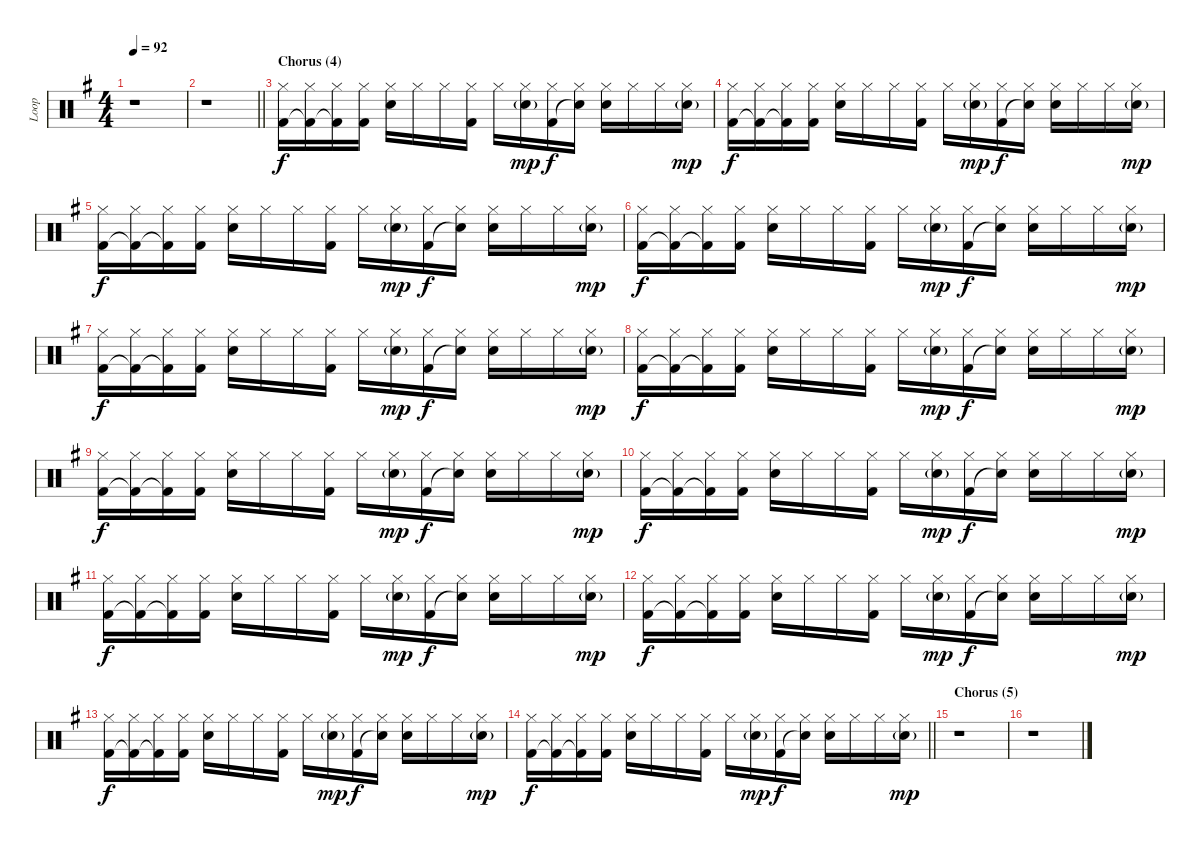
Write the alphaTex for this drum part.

\track ("Loop" "Loop") {instrument percussion}
\staff {score}
\articulation defaults
\ts (4 4)
\tempo 92
\clef neutral
\ks g
r.1{dy mp} |
\barLineRight lightlight
r.1 |
\section ("" "Chorus (4)")
("Hi-Hat (closed)" "Kick (hit) 2").16{dy f} ("Hi-Hat (closed)" "Kick (hit) 2"{t}).16 ("Hi-Hat (closed)" "Kick (hit) 2"{t}).16 ("Hi-Hat (closed)" "Kick (hit) 2").16 ("Hi-Hat (closed)" "Electric Snare (hit)").16 "Hi-Hat (closed)".16 "Hi-Hat (closed)".16 ("Hi-Hat (closed)" "Kick (hit) 2").16 "Hi-Hat (closed)".16 ("Hi-Hat (closed)" "Electric Snare (hit)"{g}).16{dy mp} ("Hi-Hat (closed)" "Kick (hit) 2").16{dy f} ("Hi-Hat (closed)" "Snare (hit)"{t}).16 ("Hi-Hat (closed)" "Electric Snare (hit)").16 "Hi-Hat (closed)".16 "Hi-Hat (closed)".16 ("Hi-Hat (closed)" "Electric Snare (hit)"{g}).16{dy mp} |
("Hi-Hat (closed)" "Kick (hit) 2").16{dy f} ("Hi-Hat (closed)" "Kick (hit) 2"{t}).16 ("Hi-Hat (closed)" "Kick (hit) 2"{t}).16 ("Hi-Hat (closed)" "Kick (hit) 2").16 ("Hi-Hat (closed)" "Electric Snare (hit)").16 "Hi-Hat (closed)".16 "Hi-Hat (closed)".16 ("Hi-Hat (closed)" "Kick (hit) 2").16 "Hi-Hat (closed)".16 ("Hi-Hat (closed)" "Electric Snare (hit)"{g}).16{dy mp} ("Hi-Hat (closed)" "Kick (hit) 2").16{dy f} ("Hi-Hat (closed)" "Snare (hit)"{t}).16 ("Hi-Hat (closed)" "Electric Snare (hit)").16 "Hi-Hat (closed)".16 "Hi-Hat (closed)".16 ("Hi-Hat (closed)" "Electric Snare (hit)"{g}).16{dy mp} |
("Hi-Hat (closed)" "Kick (hit) 2").16{dy f} ("Hi-Hat (closed)" "Kick (hit) 2"{t}).16 ("Hi-Hat (closed)" "Kick (hit) 2"{t}).16 ("Hi-Hat (closed)" "Kick (hit) 2").16 ("Hi-Hat (closed)" "Electric Snare (hit)").16 "Hi-Hat (closed)".16 "Hi-Hat (closed)".16 ("Hi-Hat (closed)" "Kick (hit) 2").16 "Hi-Hat (closed)".16 ("Hi-Hat (closed)" "Electric Snare (hit)"{g}).16{dy mp} ("Hi-Hat (closed)" "Kick (hit) 2").16{dy f} ("Hi-Hat (closed)" "Snare (hit)"{t}).16 ("Hi-Hat (closed)" "Electric Snare (hit)").16 "Hi-Hat (closed)".16 "Hi-Hat (closed)".16 ("Hi-Hat (closed)" "Electric Snare (hit)"{g}).16{dy mp} |
("Hi-Hat (closed)" "Kick (hit) 2").16{dy f} ("Hi-Hat (closed)" "Kick (hit) 2"{t}).16 ("Hi-Hat (closed)" "Kick (hit) 2"{t}).16 ("Hi-Hat (closed)" "Kick (hit) 2").16 ("Hi-Hat (closed)" "Electric Snare (hit)").16 "Hi-Hat (closed)".16 "Hi-Hat (closed)".16 ("Hi-Hat (closed)" "Kick (hit) 2").16 "Hi-Hat (closed)".16 ("Hi-Hat (closed)" "Electric Snare (hit)"{g}).16{dy mp} ("Hi-Hat (closed)" "Kick (hit) 2").16{dy f} ("Hi-Hat (closed)" "Snare (hit)"{t}).16 ("Hi-Hat (closed)" "Electric Snare (hit)").16 "Hi-Hat (closed)".16 "Hi-Hat (closed)".16 ("Hi-Hat (closed)" "Electric Snare (hit)"{g}).16{dy mp} |
("Hi-Hat (closed)" "Kick (hit) 2").16{dy f} ("Hi-Hat (closed)" "Kick (hit) 2"{t}).16 ("Hi-Hat (closed)" "Kick (hit) 2"{t}).16 ("Hi-Hat (closed)" "Kick (hit) 2").16 ("Hi-Hat (closed)" "Electric Snare (hit)").16 "Hi-Hat (closed)".16 "Hi-Hat (closed)".16 ("Hi-Hat (closed)" "Kick (hit) 2").16 "Hi-Hat (closed)".16 ("Hi-Hat (closed)" "Electric Snare (hit)"{g}).16{dy mp} ("Hi-Hat (closed)" "Kick (hit) 2").16{dy f} ("Hi-Hat (closed)" "Snare (hit)"{t}).16 ("Hi-Hat (closed)" "Electric Snare (hit)").16 "Hi-Hat (closed)".16 "Hi-Hat (closed)".16 ("Hi-Hat (closed)" "Electric Snare (hit)"{g}).16{dy mp} |
("Hi-Hat (closed)" "Kick (hit) 2").16{dy f} ("Hi-Hat (closed)" "Kick (hit) 2"{t}).16 ("Hi-Hat (closed)" "Kick (hit) 2"{t}).16 ("Hi-Hat (closed)" "Kick (hit) 2").16 ("Hi-Hat (closed)" "Electric Snare (hit)").16 "Hi-Hat (closed)".16 "Hi-Hat (closed)".16 ("Hi-Hat (closed)" "Kick (hit) 2").16 "Hi-Hat (closed)".16 ("Hi-Hat (closed)" "Electric Snare (hit)"{g}).16{dy mp} ("Hi-Hat (closed)" "Kick (hit) 2").16{dy f} ("Hi-Hat (closed)" "Snare (hit)"{t}).16 ("Hi-Hat (closed)" "Electric Snare (hit)").16 "Hi-Hat (closed)".16 "Hi-Hat (closed)".16 ("Hi-Hat (closed)" "Electric Snare (hit)"{g}).16{dy mp} |
("Hi-Hat (closed)" "Kick (hit) 2").16{dy f} ("Hi-Hat (closed)" "Kick (hit) 2"{t}).16 ("Hi-Hat (closed)" "Kick (hit) 2"{t}).16 ("Hi-Hat (closed)" "Kick (hit) 2").16 ("Hi-Hat (closed)" "Electric Snare (hit)").16 "Hi-Hat (closed)".16 "Hi-Hat (closed)".16 ("Hi-Hat (closed)" "Kick (hit) 2").16 "Hi-Hat (closed)".16 ("Hi-Hat (closed)" "Electric Snare (hit)"{g}).16{dy mp} ("Hi-Hat (closed)" "Kick (hit) 2").16{dy f} ("Hi-Hat (closed)" "Snare (hit)"{t}).16 ("Hi-Hat (closed)" "Electric Snare (hit)").16 "Hi-Hat (closed)".16 "Hi-Hat (closed)".16 ("Hi-Hat (closed)" "Electric Snare (hit)"{g}).16{dy mp} |
("Hi-Hat (closed)" "Kick (hit) 2").16{dy f} ("Hi-Hat (closed)" "Kick (hit) 2"{t}).16 ("Hi-Hat (closed)" "Kick (hit) 2"{t}).16 ("Hi-Hat (closed)" "Kick (hit) 2").16 ("Hi-Hat (closed)" "Electric Snare (hit)").16 "Hi-Hat (closed)".16 "Hi-Hat (closed)".16 ("Hi-Hat (closed)" "Kick (hit) 2").16 "Hi-Hat (closed)".16 ("Hi-Hat (closed)" "Electric Snare (hit)"{g}).16{dy mp} ("Hi-Hat (closed)" "Kick (hit) 2").16{dy f} ("Hi-Hat (closed)" "Snare (hit)"{t}).16 ("Hi-Hat (closed)" "Electric Snare (hit)").16 "Hi-Hat (closed)".16 "Hi-Hat (closed)".16 ("Hi-Hat (closed)" "Electric Snare (hit)"{g}).16{dy mp} |
("Hi-Hat (closed)" "Kick (hit) 2").16{dy f} ("Hi-Hat (closed)" "Kick (hit) 2"{t}).16 ("Hi-Hat (closed)" "Kick (hit) 2"{t}).16 ("Hi-Hat (closed)" "Kick (hit) 2").16 ("Hi-Hat (closed)" "Electric Snare (hit)").16 "Hi-Hat (closed)".16 "Hi-Hat (closed)".16 ("Hi-Hat (closed)" "Kick (hit) 2").16 "Hi-Hat (closed)".16 ("Hi-Hat (closed)" "Electric Snare (hit)"{g}).16{dy mp} ("Hi-Hat (closed)" "Kick (hit) 2").16{dy f} ("Hi-Hat (closed)" "Snare (hit)"{t}).16 ("Hi-Hat (closed)" "Electric Snare (hit)").16 "Hi-Hat (closed)".16 "Hi-Hat (closed)".16 ("Hi-Hat (closed)" "Electric Snare (hit)"{g}).16{dy mp} |
("Hi-Hat (closed)" "Kick (hit) 2").16{dy f} ("Hi-Hat (closed)" "Kick (hit) 2"{t}).16 ("Hi-Hat (closed)" "Kick (hit) 2"{t}).16 ("Hi-Hat (closed)" "Kick (hit) 2").16 ("Hi-Hat (closed)" "Electric Snare (hit)").16 "Hi-Hat (closed)".16 "Hi-Hat (closed)".16 ("Hi-Hat (closed)" "Kick (hit) 2").16 "Hi-Hat (closed)".16 ("Hi-Hat (closed)" "Electric Snare (hit)"{g}).16{dy mp} ("Hi-Hat (closed)" "Kick (hit) 2").16{dy f} ("Hi-Hat (closed)" "Snare (hit)"{t}).16 ("Hi-Hat (closed)" "Electric Snare (hit)").16 "Hi-Hat (closed)".16 "Hi-Hat (closed)".16 ("Hi-Hat (closed)" "Electric Snare (hit)"{g}).16{dy mp} |
("Hi-Hat (closed)" "Kick (hit) 2").16{dy f} ("Hi-Hat (closed)" "Kick (hit) 2"{t}).16 ("Hi-Hat (closed)" "Kick (hit) 2"{t}).16 ("Hi-Hat (closed)" "Kick (hit) 2").16 ("Hi-Hat (closed)" "Electric Snare (hit)").16 "Hi-Hat (closed)".16 "Hi-Hat (closed)".16 ("Hi-Hat (closed)" "Kick (hit) 2").16 "Hi-Hat (closed)".16 ("Hi-Hat (closed)" "Electric Snare (hit)"{g}).16{dy mp} ("Hi-Hat (closed)" "Kick (hit) 2").16{dy f} ("Hi-Hat (closed)" "Snare (hit)"{t}).16 ("Hi-Hat (closed)" "Electric Snare (hit)").16 "Hi-Hat (closed)".16 "Hi-Hat (closed)".16 ("Hi-Hat (closed)" "Electric Snare (hit)"{g}).16{dy mp} |
\barLineRight lightlight
("Hi-Hat (closed)" "Kick (hit) 2").16{dy f} ("Hi-Hat (closed)" "Kick (hit) 2"{t}).16 ("Hi-Hat (closed)" "Kick (hit) 2"{t}).16 ("Hi-Hat (closed)" "Kick (hit) 2").16 ("Hi-Hat (closed)" "Electric Snare (hit)").16 "Hi-Hat (closed)".16 "Hi-Hat (closed)".16 ("Hi-Hat (closed)" "Kick (hit) 2").16 "Hi-Hat (closed)".16 ("Hi-Hat (closed)" "Electric Snare (hit)"{g}).16{dy mp} ("Hi-Hat (closed)" "Kick (hit) 2").16{dy f} ("Hi-Hat (closed)" "Snare (hit)"{t}).16 ("Hi-Hat (closed)" "Electric Snare (hit)").16 "Hi-Hat (closed)".16 "Hi-Hat (closed)".16 ("Hi-Hat (closed)" "Electric Snare (hit)"{g}).16{dy mp} |
\section ("" "Chorus (5)")
r.1 |
r.1
